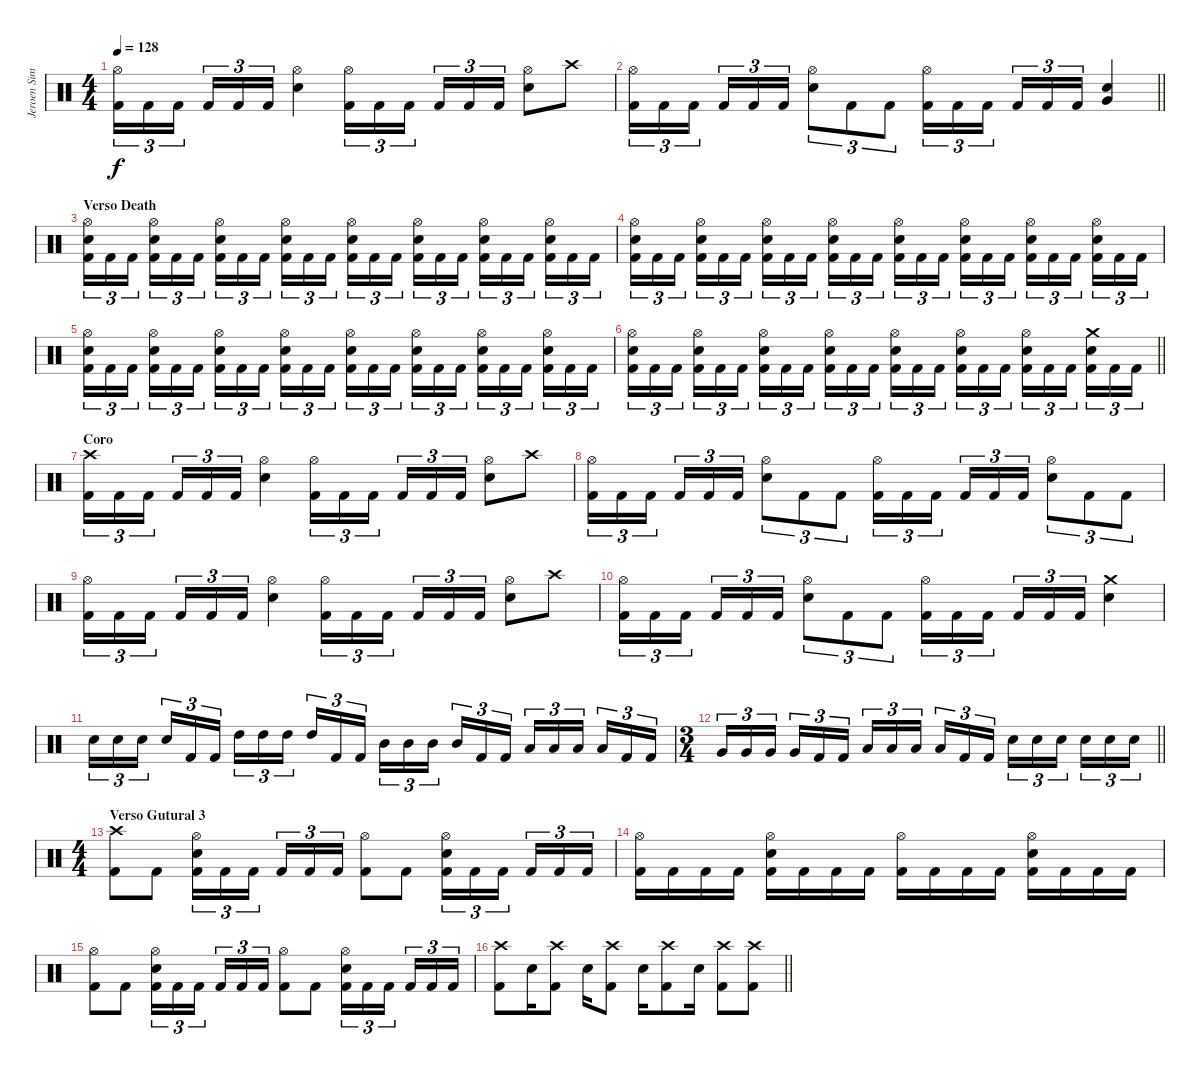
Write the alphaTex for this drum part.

\track ("Jeroen Simons" "Jeroen Sim") {instrument percussion}
\staff {score}
\articulation defaults
\ts (4 4)
\tempo 128
\clef neutral
\ks c
("Hi-Hat (open)" "Kick (hit) 2").16{tu (3 2) dy f} "Kick (hit) 2".16{tu (3 2)} "Kick (hit) 2".16{tu (3 2) beam splitsecondary} "Kick (hit) 2".16{tu (3 2)} "Kick (hit) 2".16{tu (3 2)} "Kick (hit) 2".16{tu (3 2)} ("Hi-Hat (open)" "Electric Snare (hit)").4 ("Hi-Hat (open)" "Kick (hit) 2").16{tu (3 2)} "Kick (hit) 2".16{tu (3 2)} "Kick (hit) 2".16{tu (3 2) beam splitsecondary} "Kick (hit) 2".16{tu (3 2)} "Kick (hit) 2".16{tu (3 2)} "Kick (hit) 2".16{tu (3 2)} ("Hi-Hat (open)" "Electric Snare (hit)").8 "Crash high (hit)".8 |
\barLineRight lightlight
("Hi-Hat (open)" "Kick (hit) 2").16{tu (3 2)} "Kick (hit) 2".16{tu (3 2)} "Kick (hit) 2".16{tu (3 2) beam splitsecondary} "Kick (hit) 2".16{tu (3 2)} "Kick (hit) 2".16{tu (3 2)} "Kick (hit) 2".16{tu (3 2)} ("Hi-Hat (open)" "Electric Snare (hit)").8{tu (3 2)} "Kick (hit) 2".8{tu (3 2)} "Kick (hit) 2".8{tu (3 2)} ("Hi-Hat (open)" "Kick (hit) 2").16{tu (3 2)} "Kick (hit) 2".16{tu (3 2)} "Kick (hit) 2".16{tu (3 2) beam splitsecondary} "Kick (hit) 2".16{tu (3 2)} "Kick (hit) 2".16{tu (3 2)} "Kick (hit) 2".16{tu (3 2)} ("Very Low Tom (hit)" "Electric Snare (hit)").4 |
\section ("" "Verso Death")
("Hi-Hat (open)" "Electric Snare (hit)" "Kick (hit) 2").16{tu (3 2)} "Kick (hit) 2".16{tu (3 2)} "Kick (hit) 2".16{tu (3 2) beam splitsecondary} ("Hi-Hat (open)" "Electric Snare (hit)" "Kick (hit) 2").16{tu (3 2)} "Kick (hit) 2".16{tu (3 2)} "Kick (hit) 2".16{tu (3 2)} ("Hi-Hat (open)" "Electric Snare (hit)" "Kick (hit) 2").16{tu (3 2)} "Kick (hit) 2".16{tu (3 2)} "Kick (hit) 2".16{tu (3 2) beam splitsecondary} ("Hi-Hat (open)" "Electric Snare (hit)" "Kick (hit) 2").16{tu (3 2)} "Kick (hit) 2".16{tu (3 2)} "Kick (hit) 2".16{tu (3 2)} ("Hi-Hat (open)" "Electric Snare (hit)" "Kick (hit) 2").16{tu (3 2)} "Kick (hit) 2".16{tu (3 2)} "Kick (hit) 2".16{tu (3 2) beam splitsecondary} ("Hi-Hat (open)" "Electric Snare (hit)" "Kick (hit) 2").16{tu (3 2)} "Kick (hit) 2".16{tu (3 2)} "Kick (hit) 2".16{tu (3 2)} ("Hi-Hat (open)" "Electric Snare (hit)" "Kick (hit) 2").16{tu (3 2)} "Kick (hit) 2".16{tu (3 2)} "Kick (hit) 2".16{tu (3 2) beam splitsecondary} ("Hi-Hat (open)" "Electric Snare (hit)" "Kick (hit) 2").16{tu (3 2)} "Kick (hit) 2".16{tu (3 2)} "Kick (hit) 2".16{tu (3 2)} |
("Hi-Hat (open)" "Electric Snare (hit)" "Kick (hit) 2").16{tu (3 2)} "Kick (hit) 2".16{tu (3 2)} "Kick (hit) 2".16{tu (3 2) beam splitsecondary} ("Hi-Hat (open)" "Electric Snare (hit)" "Kick (hit) 2").16{tu (3 2)} "Kick (hit) 2".16{tu (3 2)} "Kick (hit) 2".16{tu (3 2)} ("Hi-Hat (open)" "Electric Snare (hit)" "Kick (hit) 2").16{tu (3 2)} "Kick (hit) 2".16{tu (3 2)} "Kick (hit) 2".16{tu (3 2) beam splitsecondary} ("Hi-Hat (open)" "Electric Snare (hit)" "Kick (hit) 2").16{tu (3 2)} "Kick (hit) 2".16{tu (3 2)} "Kick (hit) 2".16{tu (3 2)} ("Hi-Hat (open)" "Electric Snare (hit)" "Kick (hit) 2").16{tu (3 2)} "Kick (hit) 2".16{tu (3 2)} "Kick (hit) 2".16{tu (3 2) beam splitsecondary} ("Hi-Hat (open)" "Electric Snare (hit)" "Kick (hit) 2").16{tu (3 2)} "Kick (hit) 2".16{tu (3 2)} "Kick (hit) 2".16{tu (3 2)} ("Hi-Hat (open)" "Electric Snare (hit)" "Kick (hit) 2").16{tu (3 2)} "Kick (hit) 2".16{tu (3 2)} "Kick (hit) 2".16{tu (3 2) beam splitsecondary} ("Hi-Hat (open)" "Electric Snare (hit)" "Kick (hit) 2").16{tu (3 2)} "Kick (hit) 2".16{tu (3 2)} "Kick (hit) 2".16{tu (3 2)} |
("Hi-Hat (open)" "Electric Snare (hit)" "Kick (hit) 2").16{tu (3 2)} "Kick (hit) 2".16{tu (3 2)} "Kick (hit) 2".16{tu (3 2) beam splitsecondary} ("Hi-Hat (open)" "Electric Snare (hit)" "Kick (hit) 2").16{tu (3 2)} "Kick (hit) 2".16{tu (3 2)} "Kick (hit) 2".16{tu (3 2)} ("Hi-Hat (open)" "Electric Snare (hit)" "Kick (hit) 2").16{tu (3 2)} "Kick (hit) 2".16{tu (3 2)} "Kick (hit) 2".16{tu (3 2) beam splitsecondary} ("Hi-Hat (open)" "Electric Snare (hit)" "Kick (hit) 2").16{tu (3 2)} "Kick (hit) 2".16{tu (3 2)} "Kick (hit) 2".16{tu (3 2)} ("Hi-Hat (open)" "Electric Snare (hit)" "Kick (hit) 2").16{tu (3 2)} "Kick (hit) 2".16{tu (3 2)} "Kick (hit) 2".16{tu (3 2) beam splitsecondary} ("Hi-Hat (open)" "Electric Snare (hit)" "Kick (hit) 2").16{tu (3 2)} "Kick (hit) 2".16{tu (3 2)} "Kick (hit) 2".16{tu (3 2)} ("Hi-Hat (open)" "Electric Snare (hit)" "Kick (hit) 2").16{tu (3 2)} "Kick (hit) 2".16{tu (3 2)} "Kick (hit) 2".16{tu (3 2) beam splitsecondary} ("Hi-Hat (open)" "Electric Snare (hit)" "Kick (hit) 2").16{tu (3 2)} "Kick (hit) 2".16{tu (3 2)} "Kick (hit) 2".16{tu (3 2)} |
\barLineRight lightlight
("Hi-Hat (open)" "Electric Snare (hit)" "Kick (hit) 2").16{tu (3 2)} "Kick (hit) 2".16{tu (3 2)} "Kick (hit) 2".16{tu (3 2) beam splitsecondary} ("Hi-Hat (open)" "Electric Snare (hit)" "Kick (hit) 2").16{tu (3 2)} "Kick (hit) 2".16{tu (3 2)} "Kick (hit) 2".16{tu (3 2)} ("Hi-Hat (open)" "Electric Snare (hit)" "Kick (hit) 2").16{tu (3 2)} "Kick (hit) 2".16{tu (3 2)} "Kick (hit) 2".16{tu (3 2) beam splitsecondary} ("Hi-Hat (open)" "Electric Snare (hit)" "Kick (hit) 2").16{tu (3 2)} "Kick (hit) 2".16{tu (3 2)} "Kick (hit) 2".16{tu (3 2)} ("Hi-Hat (open)" "Electric Snare (hit)" "Kick (hit) 2").16{tu (3 2)} "Kick (hit) 2".16{tu (3 2)} "Kick (hit) 2".16{tu (3 2) beam splitsecondary} ("Hi-Hat (open)" "Electric Snare (hit)" "Kick (hit) 2").16{tu (3 2)} "Kick (hit) 2".16{tu (3 2)} "Kick (hit) 2".16{tu (3 2)} ("Hi-Hat (open)" "Electric Snare (hit)" "Kick (hit) 2").16{tu (3 2)} "Kick (hit) 2".16{tu (3 2)} "Kick (hit) 2".16{tu (3 2) beam splitsecondary} ("Crash medium (hit)" "Electric Snare (hit)" "Kick (hit) 2").16{tu (3 2)} "Kick (hit) 2".16{tu (3 2)} "Kick (hit) 2".16{tu (3 2)} |
\section ("" "Coro")
("Crash high (hit)" "Kick (hit) 2").16{tu (3 2)} "Kick (hit) 2".16{tu (3 2)} "Kick (hit) 2".16{tu (3 2) beam splitsecondary} "Kick (hit) 2".16{tu (3 2)} "Kick (hit) 2".16{tu (3 2)} "Kick (hit) 2".16{tu (3 2)} ("Hi-Hat (open)" "Electric Snare (hit)").4 ("Hi-Hat (open)" "Kick (hit) 2").16{tu (3 2)} "Kick (hit) 2".16{tu (3 2)} "Kick (hit) 2".16{tu (3 2) beam splitsecondary} "Kick (hit) 2".16{tu (3 2)} "Kick (hit) 2".16{tu (3 2)} "Kick (hit) 2".16{tu (3 2)} ("Hi-Hat (open)" "Electric Snare (hit)").8 "Crash high (hit)".8 |
("Hi-Hat (open)" "Kick (hit) 2").16{tu (3 2)} "Kick (hit) 2".16{tu (3 2)} "Kick (hit) 2".16{tu (3 2) beam splitsecondary} "Kick (hit) 2".16{tu (3 2)} "Kick (hit) 2".16{tu (3 2)} "Kick (hit) 2".16{tu (3 2)} ("Hi-Hat (open)" "Electric Snare (hit)").8{tu (3 2)} "Kick (hit) 2".8{tu (3 2)} "Kick (hit) 2".8{tu (3 2)} ("Hi-Hat (open)" "Kick (hit) 2").16{tu (3 2)} "Kick (hit) 2".16{tu (3 2)} "Kick (hit) 2".16{tu (3 2) beam splitsecondary} "Kick (hit) 2".16{tu (3 2)} "Kick (hit) 2".16{tu (3 2)} "Kick (hit) 2".16{tu (3 2)} ("Hi-Hat (open)" "Electric Snare (hit)").8{tu (3 2)} "Kick (hit) 2".8{tu (3 2)} "Kick (hit) 2".8{tu (3 2)} |
("Hi-Hat (open)" "Kick (hit) 2").16{tu (3 2)} "Kick (hit) 2".16{tu (3 2)} "Kick (hit) 2".16{tu (3 2) beam splitsecondary} "Kick (hit) 2".16{tu (3 2)} "Kick (hit) 2".16{tu (3 2)} "Kick (hit) 2".16{tu (3 2)} ("Hi-Hat (open)" "Electric Snare (hit)").4 ("Hi-Hat (open)" "Kick (hit) 2").16{tu (3 2)} "Kick (hit) 2".16{tu (3 2)} "Kick (hit) 2".16{tu (3 2) beam splitsecondary} "Kick (hit) 2".16{tu (3 2)} "Kick (hit) 2".16{tu (3 2)} "Kick (hit) 2".16{tu (3 2)} ("Hi-Hat (open)" "Electric Snare (hit)").8 "Crash high (hit)".8 |
("Hi-Hat (open)" "Kick (hit) 2").16{tu (3 2)} "Kick (hit) 2".16{tu (3 2)} "Kick (hit) 2".16{tu (3 2) beam splitsecondary} "Kick (hit) 2".16{tu (3 2)} "Kick (hit) 2".16{tu (3 2)} "Kick (hit) 2".16{tu (3 2)} ("Hi-Hat (open)" "Electric Snare (hit)").8{tu (3 2)} "Kick (hit) 2".8{tu (3 2)} "Kick (hit) 2".8{tu (3 2)} ("Hi-Hat (open)" "Kick (hit) 2").16{tu (3 2)} "Kick (hit) 2".16{tu (3 2)} "Kick (hit) 2".16{tu (3 2) beam splitsecondary} "Kick (hit) 2".16{tu (3 2)} "Kick (hit) 2".16{tu (3 2)} "Kick (hit) 2".16{tu (3 2)} ("Crash medium (hit)" "Electric Snare (hit)").4 |
"Electric Snare (hit)".16{tu (3 2)} "Electric Snare (hit)".16{tu (3 2)} "Electric Snare (hit)".16{tu (3 2) beam splitsecondary} "Electric Snare (hit)".16{tu (3 2)} "Kick (hit) 2".16{tu (3 2)} "Kick (hit) 2".16{tu (3 2)} "High Tom (hit)".16{tu (3 2)} "High Tom (hit)".16{tu (3 2)} "High Tom (hit)".16{tu (3 2) beam splitsecondary} "High Tom (hit)".16{tu (3 2)} "Kick (hit) 2".16{tu (3 2)} "Kick (hit) 2".16{tu (3 2)} "Mid Tom (hit)".16{tu (3 2)} "Mid Tom (hit)".16{tu (3 2)} "Mid Tom (hit)".16{tu (3 2) beam splitsecondary} "Mid Tom (hit)".16{tu (3 2)} "Kick (hit) 2".16{tu (3 2)} "Kick (hit) 2".16{tu (3 2)} "Low Tom (hit)".16{tu (3 2)} "Low Tom (hit)".16{tu (3 2)} "Low Tom (hit)".16{tu (3 2) beam splitsecondary} "Low Tom (hit)".16{tu (3 2)} "Kick (hit) 2".16{tu (3 2)} "Kick (hit) 2".16{tu (3 2)} |
\ts (3 4)
\barLineRight lightlight "Very Low Tom (hit)".16{tu (3 2)} "Very Low Tom (hit)".16{tu (3 2)} "Very Low Tom (hit)".16{tu (3 2) beam splitsecondary} "Very Low Tom (hit)".16{tu (3 2)} "Kick (hit) 2".16{tu (3 2)} "Kick (hit) 2".16{tu (3 2)} "Low Floor Tom (hit)".16{tu (3 2)} "Low Floor Tom (hit)".16{tu (3 2)} "Low Floor Tom (hit)".16{tu (3 2) beam splitsecondary} "Low Floor Tom (hit)".16{tu (3 2)} "Kick (hit) 2".16{tu (3 2)} "Kick (hit) 2".16{tu (3 2)} "Electric Snare (hit)".16{tu (3 2)} "Electric Snare (hit)".16{tu (3 2)} "Electric Snare (hit)".16{tu (3 2) beam splitsecondary} "Electric Snare (hit)".16{tu (3 2)} "Electric Snare (hit)".16{tu (3 2)} "Electric Snare (hit)".16{tu (3 2)}
|
\ts (4 4)
\section ("" "Verso Gutural 3")
("Crash high (hit)" "Kick (hit) 2").8 "Kick (hit) 2".8 ("Hi-Hat (open)" "Electric Snare (hit)" "Kick (hit) 2").16{tu (3 2)} "Kick (hit) 2".16{tu (3 2)} "Kick (hit) 2".16{tu (3 2) beam splitsecondary} "Kick (hit) 2".16{tu (3 2)} "Kick (hit) 2".16{tu (3 2)} "Kick (hit) 2".16{tu (3 2)} ("Hi-Hat (open)" "Kick (hit) 2").8 "Kick (hit) 2".8 ("Hi-Hat (open)" "Electric Snare (hit)" "Kick (hit) 2").16{tu (3 2)} "Kick (hit) 2".16{tu (3 2)} "Kick (hit) 2".16{tu (3 2) beam splitsecondary} "Kick (hit) 2".16{tu (3 2)} "Kick (hit) 2".16{tu (3 2)} "Kick (hit) 2".16{tu (3 2)} |
("Hi-Hat (open)" "Kick (hit) 2").16 "Kick (hit) 2".16 "Kick (hit) 2".16 "Kick (hit) 2".16 ("Hi-Hat (open)" "Electric Snare (hit)" "Kick (hit) 2").16 "Kick (hit) 2".16 "Kick (hit) 2".16 "Kick (hit) 2".16 ("Hi-Hat (open)" "Kick (hit) 2").16 "Kick (hit) 2".16 "Kick (hit) 2".16 "Kick (hit) 2".16 ("Hi-Hat (open)" "Electric Snare (hit)" "Kick (hit) 2").16 "Kick (hit) 2".16 "Kick (hit) 2".16 "Kick (hit) 2".16 |
("Hi-Hat (open)" "Kick (hit) 2").8 "Kick (hit) 2".8 ("Hi-Hat (open)" "Electric Snare (hit)" "Kick (hit) 2").16{tu (3 2)} "Kick (hit) 2".16{tu (3 2)} "Kick (hit) 2".16{tu (3 2) beam splitsecondary} "Kick (hit) 2".16{tu (3 2)} "Kick (hit) 2".16{tu (3 2)} "Kick (hit) 2".16{tu (3 2)} ("Hi-Hat (open)" "Kick (hit) 2").8 "Kick (hit) 2".8 ("Hi-Hat (open)" "Electric Snare (hit)" "Kick (hit) 2").16{tu (3 2)} "Kick (hit) 2".16{tu (3 2)} "Kick (hit) 2".16{tu (3 2) beam splitsecondary} "Kick (hit) 2".16{tu (3 2)} "Kick (hit) 2".16{tu (3 2)} "Kick (hit) 2".16{tu (3 2)} |
\barLineRight lightlight
("Crash high (hit)" "Kick (hit) 2").8 "Electric Snare (hit)".16 ("Crash high (hit)" "Kick (hit) 2").8 "Electric Snare (hit)".16 ("Crash high (hit)" "Kick (hit) 2").8 "Electric Snare (hit)".16 ("Crash high (hit)" "Kick (hit) 2").8 "Electric Snare (hit)".16 ("Crash high (hit)" "Kick (hit) 2").8 ("Crash high (hit)" "Kick (hit) 2").8
